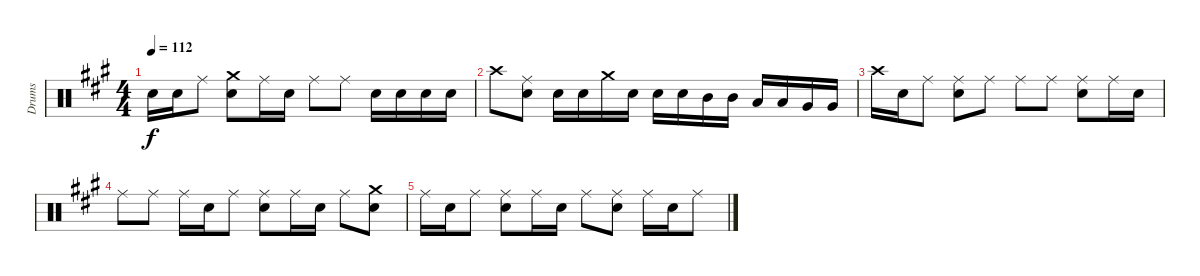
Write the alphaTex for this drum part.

\track ("Drums" "Drums") {instrument percussion}
\staff {score}
\articulation defaults
\ts (4 4)
\tempo 112
\clef neutral
\ks a "Snare (hit) 2".16{dy f} "Snare (hit) 2".16 "Ride (middle)".8
("Crash medium (hit)" "Snare (hit) 2").8 "Ride (middle)".16 "Snare (hit) 2".16 "Ride (middle)".8 "Ride (middle)".8 "Snare (hit) 2".16 "Snare (hit) 2".16 "Snare (hit) 2".16 "Snare (hit) 2".16 |
"Crash high (hit)".8 ("Ride (middle)" "Snare (hit) 2").8 "Snare (hit) 2".16 "Snare (hit) 2".16 "Crash medium (hit)".16 "Snare (hit) 2".16 "Snare (hit) 2".16 "Snare (hit) 2".16 "Mid Tom (hit)".16 "Mid Tom (hit)".16 "Low Tom (hit)".16 "Low Tom (hit)".16 "Very Low Tom (hit)".16 "Very Low Tom (hit)".16 |
"Crash high (hit)".16 "Snare (hit) 2".16 "Ride (middle)".8 ("Ride (middle)" "Snare (hit) 2").8 "Ride (middle)".8 "Ride (middle)".8 "Ride (middle)".8 ("Ride (middle)" "Snare (hit) 2").8 "Ride (middle)".16 "Snare (hit) 2".16 |
"Ride (middle)".8 "Ride (middle)".8 "Ride (middle)".16 "Snare (hit) 2".16 "Ride (middle)".8 ("Ride (middle)" "Snare (hit) 2").8 "Ride (middle)".16 "Snare (hit) 2".16 "Ride (middle)".8 ("Crash medium (hit)" "Snare (hit) 2").8 |
"Ride (middle)".16 "Snare (hit) 2".16 "Ride (middle)".8 ("Ride (middle)" "Snare (hit) 2").8 "Ride (middle)".16 "Snare (hit) 2".16 "Ride (middle)".8 ("Ride (middle)" "Snare (hit) 2").8 "Ride (middle)".16 "Snare (hit) 2".16 "Ride (middle)".8
